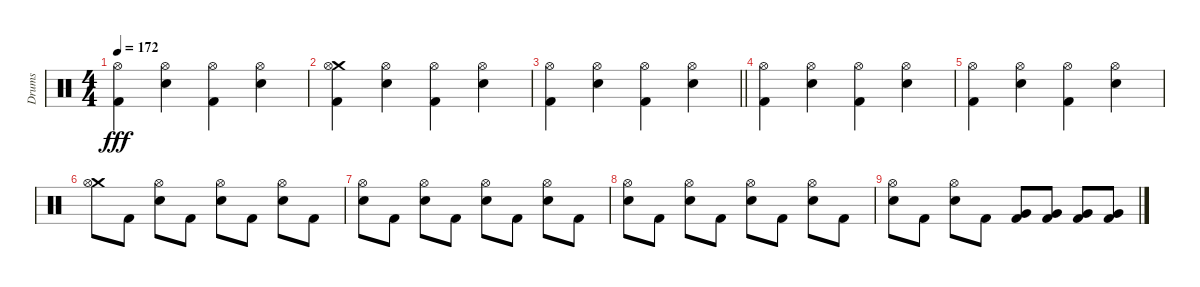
\track ("Drums" "Drums") {instrument percussion}
\staff {score}
\articulation defaults
\ts (4 4)
\tempo 172
\clef neutral
\ks c
("Hi-Hat (open)" "Kick (hit) 2").4{dy fff} ("Hi-Hat (open)" "Electric Snare (hit)").4 ("Hi-Hat (open)" "Kick (hit) 2").4 ("Hi-Hat (open)" "Electric Snare (hit)").4 |
("Crash medium (hit)" "Hi-Hat (open)" "Kick (hit) 2").4 ("Hi-Hat (open)" "Electric Snare (hit)").4 ("Hi-Hat (open)" "Kick (hit) 2").4 ("Hi-Hat (open)" "Electric Snare (hit)").4 |
\barLineRight lightlight
("Hi-Hat (open)" "Kick (hit) 2").4 ("Hi-Hat (open)" "Electric Snare (hit)").4 ("Hi-Hat (open)" "Kick (hit) 2").4 ("Hi-Hat (open)" "Electric Snare (hit)").4 |
("Hi-Hat (open)" "Kick (hit) 2").4 ("Hi-Hat (open)" "Electric Snare (hit)").4 ("Hi-Hat (open)" "Kick (hit) 2").4 ("Hi-Hat (open)" "Electric Snare (hit)").4 |
("Hi-Hat (open)" "Kick (hit) 2").4 ("Hi-Hat (open)" "Electric Snare (hit)").4 ("Hi-Hat (open)" "Kick (hit) 2").4 ("Hi-Hat (open)" "Electric Snare (hit)").4 |
("Crash medium (hit)" "Hi-Hat (open)").8 "Kick (hit) 2".8 ("Hi-Hat (open)" "Electric Snare (hit)").8 "Kick (hit) 2".8 ("Hi-Hat (open)" "Electric Snare (hit)").8 "Kick (hit) 2".8 ("Hi-Hat (open)" "Electric Snare (hit)").8 "Kick (hit) 2".8 |
("Hi-Hat (open)" "Electric Snare (hit)").8 "Kick (hit) 2".8 ("Hi-Hat (open)" "Electric Snare (hit)").8 "Kick (hit) 2".8 ("Hi-Hat (open)" "Electric Snare (hit)").8 "Kick (hit) 2".8 ("Hi-Hat (open)" "Electric Snare (hit)").8 "Kick (hit) 2".8 |
("Hi-Hat (open)" "Electric Snare (hit)").8 "Kick (hit) 2".8 ("Hi-Hat (open)" "Electric Snare (hit)").8 "Kick (hit) 2".8 ("Hi-Hat (open)" "Electric Snare (hit)").8 "Kick (hit) 2".8 ("Hi-Hat (open)" "Electric Snare (hit)").8 "Kick (hit) 2".8 |
("Hi-Hat (open)" "Electric Snare (hit)").8 "Kick (hit) 2".8 ("Hi-Hat (open)" "Electric Snare (hit)").8 "Kick (hit) 2".8 ("Very Low Tom (hit)" "Kick (hit) 2").8 ("Very Low Tom (hit)" "Kick (hit) 2").8 ("Very Low Tom (hit)" "Kick (hit) 2").8 ("Very Low Tom (hit)" "Kick (hit) 2").8
